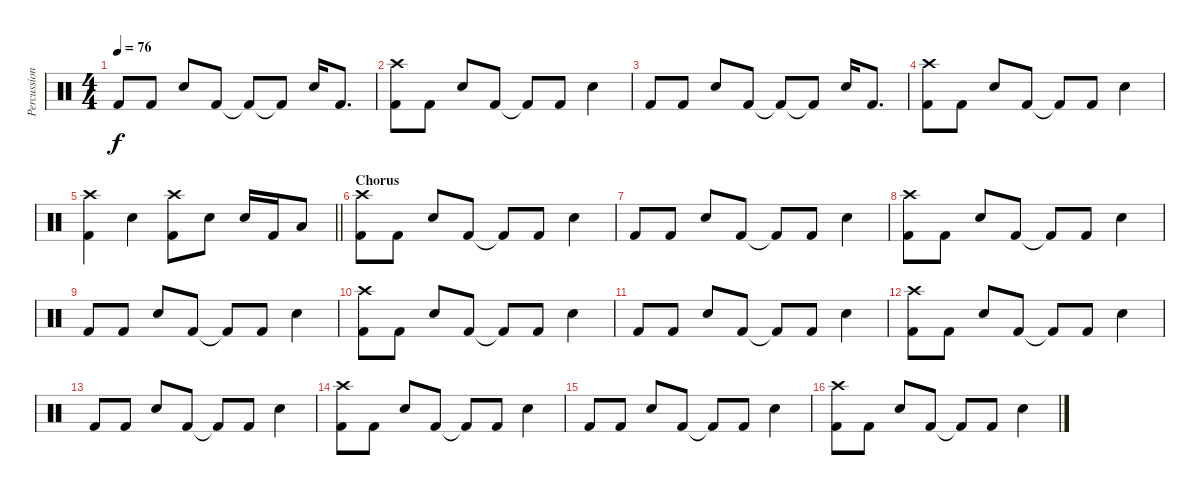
\track ("Percussion" "Percussion") {instrument percussion}
\staff {score}
\articulation defaults
\ts (4 4)
\tempo 76
\clef neutral
\ks c "Kick (hit) 2".8{dy f} "Kick (hit) 2".8 "Electric Snare (hit)".8 "Kick (hit) 2".8 "Kick (hit) 2"{t}.8 "Kick (hit) 2"{t}.8 "Electric Snare (hit)".16 "Kick (hit) 2".8{d}
|
("Kick (hit) 2" "Crash high (hit)").8 "Kick (hit) 2".8 "Electric Snare (hit)".8 "Kick (hit) 2".8 "Kick (hit) 2"{t}.8 "Kick (hit) 2".8 "Electric Snare (hit)".4 |
"Kick (hit) 2".8 "Kick (hit) 2".8 "Electric Snare (hit)".8 "Kick (hit) 2".8 "Kick (hit) 2"{t}.8 "Kick (hit) 2"{t}.8 "Electric Snare (hit)".16 "Kick (hit) 2".8{d} |
("Kick (hit) 2" "Crash high (hit)").8 "Kick (hit) 2".8 "Electric Snare (hit)".8 "Kick (hit) 2".8 "Kick (hit) 2"{t}.8 "Kick (hit) 2".8 "Electric Snare (hit)".4 |
\barLineRight lightlight
("Kick (hit) 2" "Crash high (hit)").4 "Electric Snare (hit)".4 ("Kick (hit) 2" "Crash high (hit)").8 "Electric Snare (hit)".8 "Electric Snare (hit)".16 "Kick (hit) 2".16 "Low Floor Tom (hit)".8 |
\section ("" "Chorus")
("Kick (hit) 2" "Crash high (hit)").8 "Kick (hit) 2".8 "Electric Snare (hit)".8 "Kick (hit) 2".8 "Kick (hit) 2"{t}.8 "Kick (hit) 2".8 "Electric Snare (hit)".4 |
"Kick (hit) 2".8 "Kick (hit) 2".8 "Electric Snare (hit)".8 "Kick (hit) 2".8 "Kick (hit) 2"{t}.8 "Kick (hit) 2".8 "Electric Snare (hit)".4 |
("Kick (hit) 2" "Crash high (hit)").8 "Kick (hit) 2".8 "Electric Snare (hit)".8 "Kick (hit) 2".8 "Kick (hit) 2"{t}.8 "Kick (hit) 2".8 "Electric Snare (hit)".4 |
"Kick (hit) 2".8 "Kick (hit) 2".8 "Electric Snare (hit)".8 "Kick (hit) 2".8 "Kick (hit) 2"{t}.8 "Kick (hit) 2".8 "Electric Snare (hit)".4 |
("Kick (hit) 2" "Crash high (hit)").8 "Kick (hit) 2".8 "Electric Snare (hit)".8 "Kick (hit) 2".8 "Kick (hit) 2"{t}.8 "Kick (hit) 2".8 "Electric Snare (hit)".4 |
"Kick (hit) 2".8 "Kick (hit) 2".8 "Electric Snare (hit)".8 "Kick (hit) 2".8 "Kick (hit) 2"{t}.8 "Kick (hit) 2".8 "Electric Snare (hit)".4 |
("Kick (hit) 2" "Crash high (hit)").8 "Kick (hit) 2".8 "Electric Snare (hit)".8 "Kick (hit) 2".8 "Kick (hit) 2"{t}.8 "Kick (hit) 2".8 "Electric Snare (hit)".4 |
"Kick (hit) 2".8 "Kick (hit) 2".8 "Electric Snare (hit)".8 "Kick (hit) 2".8 "Kick (hit) 2"{t}.8 "Kick (hit) 2".8 "Electric Snare (hit)".4 |
("Kick (hit) 2" "Crash high (hit)").8 "Kick (hit) 2".8 "Electric Snare (hit)".8 "Kick (hit) 2".8 "Kick (hit) 2"{t}.8 "Kick (hit) 2".8 "Electric Snare (hit)".4 |
"Kick (hit) 2".8 "Kick (hit) 2".8 "Electric Snare (hit)".8 "Kick (hit) 2".8 "Kick (hit) 2"{t}.8 "Kick (hit) 2".8 "Electric Snare (hit)".4 |
("Kick (hit) 2" "Crash high (hit)").8 "Kick (hit) 2".8 "Electric Snare (hit)".8 "Kick (hit) 2".8 "Kick (hit) 2"{t}.8 "Kick (hit) 2".8 "Electric Snare (hit)".4
